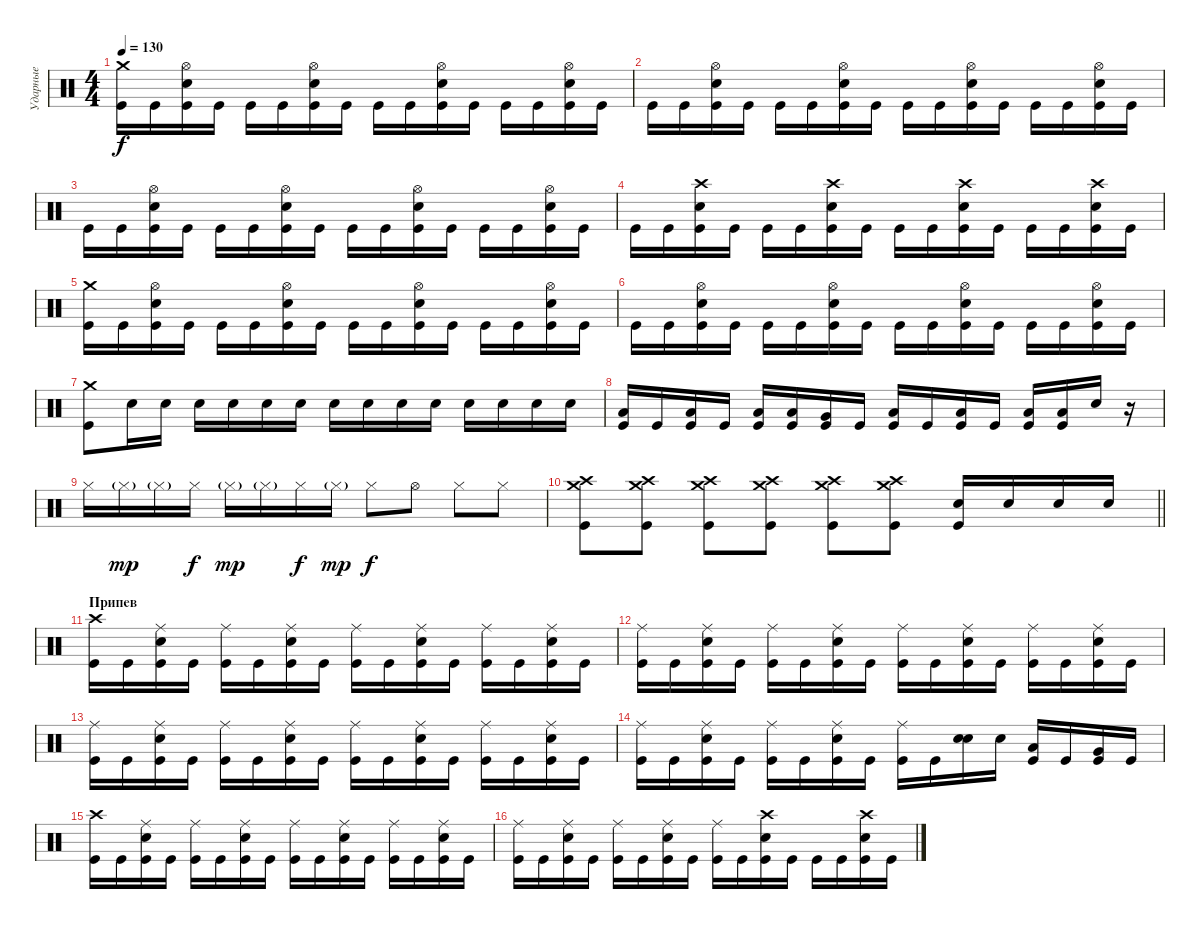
\track ("Ударные" "Ударные") {instrument percussion}
\staff {score}
\articulation defaults
\ts (4 4)
\tempo 130
\clef neutral
\ks c
("Kick (hit)" "Crash medium (hit)").16{dy f} "Kick (hit)".16 ("Kick (hit)" "Snare (hit) 2" "Hi-Hat (open)").16 "Kick (hit)".16 "Kick (hit)".16 "Kick (hit)".16 ("Kick (hit)" "Snare (hit) 2" "Hi-Hat (open)").16 "Kick (hit)".16 "Kick (hit)".16 "Kick (hit)".16 ("Kick (hit)" "Snare (hit) 2" "Hi-Hat (open)").16 "Kick (hit)".16 "Kick (hit)".16 "Kick (hit)".16 ("Kick (hit)" "Snare (hit) 2" "Hi-Hat (open)").16 "Kick (hit)".16 |
"Kick (hit)".16 "Kick (hit)".16 ("Kick (hit)" "Snare (hit) 2" "Hi-Hat (open)").16 "Kick (hit)".16 "Kick (hit)".16 "Kick (hit)".16 ("Kick (hit)" "Snare (hit) 2" "Hi-Hat (open)").16 "Kick (hit)".16 "Kick (hit)".16 "Kick (hit)".16 ("Kick (hit)" "Snare (hit) 2" "Hi-Hat (open)").16 "Kick (hit)".16 "Kick (hit)".16 "Kick (hit)".16 ("Kick (hit)" "Snare (hit) 2" "Hi-Hat (open)").16 "Kick (hit)".16 |
"Kick (hit)".16 "Kick (hit)".16 ("Kick (hit)" "Snare (hit) 2" "Hi-Hat (open)").16 "Kick (hit)".16 "Kick (hit)".16 "Kick (hit)".16 ("Kick (hit)" "Snare (hit) 2" "Hi-Hat (open)").16 "Kick (hit)".16 "Kick (hit)".16 "Kick (hit)".16 ("Kick (hit)" "Snare (hit) 2" "Hi-Hat (open)").16 "Kick (hit)".16 "Kick (hit)".16 "Kick (hit)".16 ("Kick (hit)" "Snare (hit) 2" "Hi-Hat (open)").16 "Kick (hit)".16 |
"Kick (hit)".16 "Kick (hit)".16 ("Kick (hit)" "Snare (hit) 2" "Crash high (hit)").16 "Kick (hit)".16 "Kick (hit)".16 "Kick (hit)".16 ("Kick (hit)" "Snare (hit) 2" "Crash high (hit)").16 "Kick (hit)".16 "Kick (hit)".16 "Kick (hit)".16 ("Kick (hit)" "Snare (hit) 2" "Crash high (hit)").16 "Kick (hit)".16 "Kick (hit)".16 "Kick (hit)".16 ("Kick (hit)" "Snare (hit) 2" "Crash high (hit)").16 "Kick (hit)".16 |
("Kick (hit)" "Crash medium (hit)").16 "Kick (hit)".16 ("Kick (hit)" "Snare (hit) 2" "Hi-Hat (open)").16 "Kick (hit)".16 "Kick (hit)".16 "Kick (hit)".16 ("Kick (hit)" "Snare (hit) 2" "Hi-Hat (open)").16 "Kick (hit)".16 "Kick (hit)".16 "Kick (hit)".16 ("Kick (hit)" "Snare (hit) 2" "Hi-Hat (open)").16 "Kick (hit)".16 "Kick (hit)".16 "Kick (hit)".16 ("Kick (hit)" "Snare (hit) 2" "Hi-Hat (open)").16 "Kick (hit)".16 |
"Kick (hit)".16 "Kick (hit)".16 ("Kick (hit)" "Snare (hit) 2" "Hi-Hat (open)").16 "Kick (hit)".16 "Kick (hit)".16 "Kick (hit)".16 ("Kick (hit)" "Snare (hit) 2" "Hi-Hat (open)").16 "Kick (hit)".16 "Kick (hit)".16 "Kick (hit)".16 ("Kick (hit)" "Snare (hit) 2" "Hi-Hat (open)").16 "Kick (hit)".16 "Kick (hit)".16 "Kick (hit)".16 ("Kick (hit)" "Snare (hit) 2" "Hi-Hat (open)").16 "Kick (hit)".16 |
("Kick (hit)" "Crash medium (hit)").8 "Snare (hit) 2".16 "Snare (hit) 2".16 "Snare (hit) 2".16 "Snare (hit) 2".16 "Snare (hit) 2".16 "Snare (hit) 2".16 "Snare (hit) 2".16 "Snare (hit) 2".16 "Snare (hit) 2".16 "Snare (hit) 2".16 "Snare (hit) 2".16 "Snare (hit) 2".16 "Snare (hit) 2".16 "Snare (hit) 2".16 |
("Kick (hit)" "Low Tom (hit)").16 "Kick (hit)".16 ("Kick (hit)" "Low Tom (hit)").16 "Kick (hit)".16 ("Kick (hit)" "Low Tom (hit)").16 ("Kick (hit)" "Low Tom (hit)").16 ("Kick (hit)" "Very Low Tom (hit)").16 "Kick (hit)".16 ("Kick (hit)" "Low Tom (hit)").16 "Kick (hit)".16 ("Kick (hit)" "Low Tom (hit)").16 "Kick (hit)".16 ("Kick (hit)" "Low Tom (hit)").16 ("Kick (hit)" "Low Tom (hit)").16 "Snare (hit) 2".16 r.16 |
"Hi-Hat (closed)".16 "Hi-Hat (closed)"{g}.16{dy mp} "Hi-Hat (closed)"{g}.16 "Hi-Hat (closed)".16{dy f} "Hi-Hat (closed)"{g}.16{dy mp} "Hi-Hat (closed)"{g}.16 "Hi-Hat (closed)".16{dy f} "Hi-Hat (closed)"{g}.16{dy mp} "Hi-Hat (closed)".8{dy f} "Hi-Hat (open)".8 "Hi-Hat (closed)".8 "Hi-Hat (closed)".8 |
\barLineRight lightlight
("Kick (hit)" "Crash medium (hit)" "Crash high (hit)").8 ("Kick (hit)" "Crash medium (hit)" "Crash high (hit)").8 ("Kick (hit)" "Crash medium (hit)" "Crash high (hit)").8 ("Kick (hit)" "Crash medium (hit)" "Crash high (hit)").8 ("Kick (hit)" "Crash medium (hit)" "Crash high (hit)").8 ("Kick (hit)" "Crash medium (hit)" "Crash high (hit)").8 ("Kick (hit)" "Snare (hit) 2").16 "Snare (hit) 2".16 "Snare (hit) 2".16 "Snare (hit) 2".16 |
\section ("" "Припев")
("Kick (hit)" "Crash high (hit)").16 "Kick (hit)".16 ("Kick (hit)" "Snare (hit) 2" "Ride (middle)").16 "Kick (hit)".16 ("Kick (hit)" "Ride (middle)").16 "Kick (hit)".16 ("Kick (hit)" "Snare (hit) 2" "Ride (middle)").16 "Kick (hit)".16 ("Kick (hit)" "Ride (middle)").16 "Kick (hit)".16 ("Kick (hit)" "Snare (hit) 2" "Ride (middle)").16 "Kick (hit)".16 ("Kick (hit)" "Ride (middle)").16 "Kick (hit)".16 ("Kick (hit)" "Snare (hit) 2" "Ride (middle)").16 "Kick (hit)".16 |
("Kick (hit)" "Ride (middle)").16 "Kick (hit)".16 ("Kick (hit)" "Snare (hit) 2" "Ride (middle)").16 "Kick (hit)".16 ("Kick (hit)" "Ride (middle)").16 "Kick (hit)".16 ("Kick (hit)" "Snare (hit) 2" "Ride (middle)").16 "Kick (hit)".16 ("Kick (hit)" "Ride (middle)").16 "Kick (hit)".16 ("Kick (hit)" "Snare (hit) 2" "Ride (middle)").16 "Kick (hit)".16 ("Kick (hit)" "Ride (middle)").16 "Kick (hit)".16 ("Kick (hit)" "Snare (hit) 2" "Ride (middle)").16 "Kick (hit)".16 |
("Kick (hit)" "Ride (middle)").16 "Kick (hit)".16 ("Kick (hit)" "Snare (hit) 2" "Ride (middle)").16 "Kick (hit)".16 ("Kick (hit)" "Ride (middle)").16 "Kick (hit)".16 ("Kick (hit)" "Snare (hit) 2" "Ride (middle)").16 "Kick (hit)".16 ("Kick (hit)" "Ride (middle)").16 "Kick (hit)".16 ("Kick (hit)" "Snare (hit) 2" "Ride (middle)").16 "Kick (hit)".16 ("Kick (hit)" "Ride (middle)").16 "Kick (hit)".16 ("Kick (hit)" "Snare (hit) 2" "Ride (middle)").16 "Kick (hit)".16 |
("Kick (hit)" "Ride (middle)").16 "Kick (hit)".16 ("Kick (hit)" "Snare (hit) 2" "Ride (middle)").16 "Kick (hit)".16 ("Kick (hit)" "Ride (middle)").16 "Kick (hit)".16 ("Kick (hit)" "Snare (hit) 2" "Ride (middle)").16 "Kick (hit)".16 ("Kick (hit)" "Ride (middle)").16 "Kick (hit)".16 ("Snare (hit) 2" "Snare (hit) 2").16{bd 60} "Snare (hit) 2".16 ("Kick (hit)" "Low Tom (hit)").16 "Kick (hit)".16 ("Kick (hit)" "Very Low Tom (hit)").16 "Kick (hit)".16 |
("Kick (hit)" "Crash high (hit)").16 "Kick (hit)".16 ("Kick (hit)" "Snare (hit) 2" "Ride (middle)").16 "Kick (hit)".16 ("Kick (hit)" "Ride (middle)").16 "Kick (hit)".16 ("Kick (hit)" "Snare (hit) 2" "Ride (middle)").16 "Kick (hit)".16 ("Kick (hit)" "Ride (middle)").16 "Kick (hit)".16 ("Kick (hit)" "Snare (hit) 2" "Ride (middle)").16 "Kick (hit)".16 ("Kick (hit)" "Ride (middle)").16 "Kick (hit)".16 ("Kick (hit)" "Snare (hit) 2" "Ride (middle)").16 "Kick (hit)".16 |
("Kick (hit)" "Ride (middle)").16 "Kick (hit)".16 ("Kick (hit)" "Snare (hit) 2" "Ride (middle)").16 "Kick (hit)".16 ("Kick (hit)" "Ride (middle)").16 "Kick (hit)".16 ("Kick (hit)" "Snare (hit) 2" "Ride (middle)").16 "Kick (hit)".16 ("Kick (hit)" "Ride (middle)").16 "Kick (hit)".16 ("Kick (hit)" "Snare (hit) 2" "Crash high (hit)").16 "Kick (hit)".16 "Kick (hit)".16 "Kick (hit)".16 ("Kick (hit)" "Snare (hit) 2" "Crash high (hit)").16 "Kick (hit)".16
